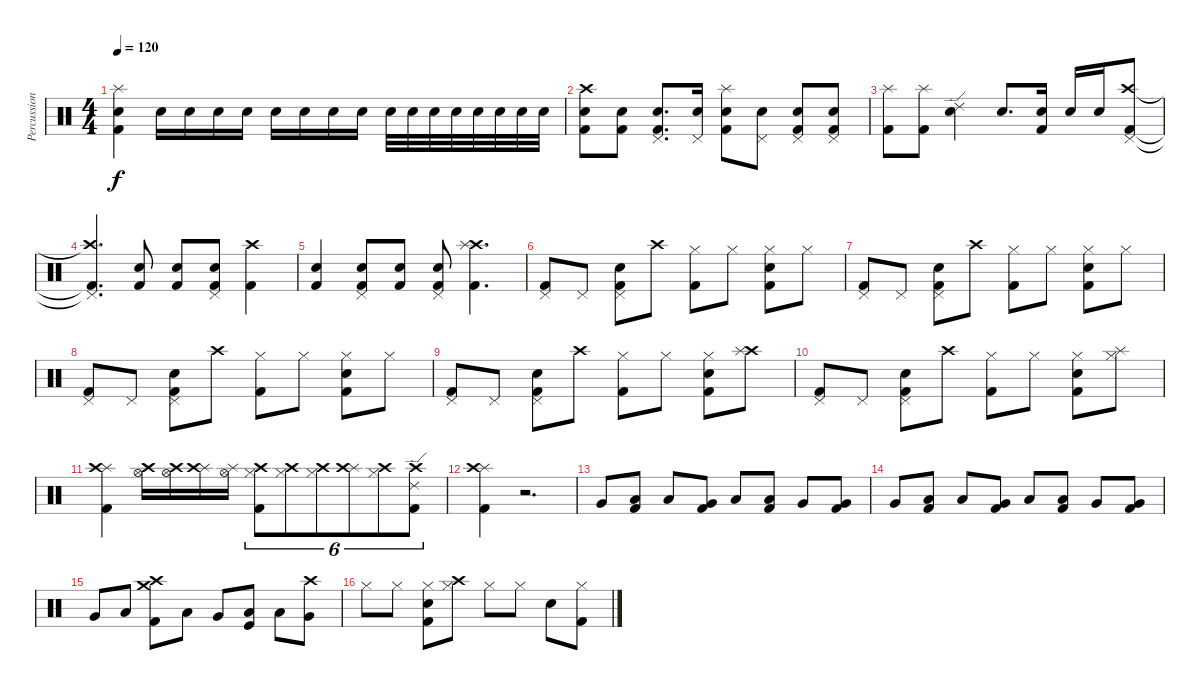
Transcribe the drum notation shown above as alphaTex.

\track ("Percussioni" "Percussion") {instrument percussion}
\staff {score}
\articulation defaults
\ts (4 4)
\tempo 120
\clef neutral
\ks c
("Splash (hit)" "Kick (hit) 2" "Snare (hit) 2").4{dy f} "Snare (hit) 2".16 "Snare (hit) 2".16 "Snare (hit) 2".16 "Snare (hit) 2".16 "Snare (hit) 2".16 "Snare (hit) 2".16 "Snare (hit) 2".16 "Snare (hit) 2".16 "Snare (hit) 2".32 "Snare (hit) 2".32 "Snare (hit) 2".32 "Snare (hit) 2".32 "Snare (hit) 2".32 "Snare (hit) 2".32 "Snare (hit) 2".32 "Snare (hit) 2".32 |
("Crash high (hit)" "Kick (hit) 2" "Snare (hit) 2").8 ("Kick (hit) 2" "Electric Snare (hit)").8 ("Pedal Hi-Hat (hit)" "Electric Snare (hit)" "Kick (hit) 2").8{d} ("Pedal Hi-Hat (hit)" "Electric Snare (hit)").16 ("Splash (hit)" "Electric Snare (hit)" "Kick (hit) 2").8 ("Pedal Hi-Hat (hit)" "Electric Snare (hit)").8 ("Pedal Hi-Hat (hit)" "Electric Snare (hit)" "Kick (hit) 2").8 ("Pedal Hi-Hat (hit)" "Electric Snare (hit)" "Kick (hit) 2").8 |
("Splash (hit)" "Kick (hit) 2").8 ("Splash (hit)" "Kick (hit) 2").8 ("Electric Snare (hit)" "Ride (edge) 2").4 "Snare (hit) 2".8{d} ("Electric Snare (hit)" "Kick (hit) 2").16 "Electric Snare (hit)".16 "Electric Snare (hit)".16 ("Crash high (hit)" "Pedal Hi-Hat (hit)" "Kick (hit) 2").8 |
("Crash high (hit)"{t} "Pedal Hi-Hat (hit)"{t} "Kick (hit) 2"{t}).4{d} ("Electric Snare (hit)" "Kick (hit) 2").8 ("Electric Snare (hit)" "Kick (hit) 2").8 ("Pedal Hi-Hat (hit)" "Electric Snare (hit)" "Kick (hit) 2").8 ("Crash high (hit)" "Kick (hit) 2").4 |
("Electric Snare (hit)" "Kick (hit) 2").4 ("Pedal Hi-Hat (hit)" "Electric Snare (hit)" "Kick (hit) 2").8 ("Electric Snare (hit)" "Kick (hit) 2").8 ("Pedal Hi-Hat (hit)" "Electric Snare (hit)" "Kick (hit) 2").8 ("Crash high (hit)" "Splash (hit)" "Kick (hit) 2").4{d} |
("Pedal Hi-Hat (hit)" "Kick (hit) 2").8 "Pedal Hi-Hat (hit)".8 ("Pedal Hi-Hat (hit)" "Electric Snare (hit)" "Kick (hit) 2").8 "Crash high (hit)".8 ("Hi-Hat (closed)" "Kick (hit) 2").8 "Hi-Hat (closed)".8 ("Hi-Hat (closed)" "Electric Snare (hit)" "Kick (hit) 2").8 "Hi-Hat (closed)".8 |
("Pedal Hi-Hat (hit)" "Kick (hit) 2").8 "Pedal Hi-Hat (hit)".8 ("Pedal Hi-Hat (hit)" "Electric Snare (hit)" "Kick (hit) 2").8 "Crash high (hit)".8 ("Hi-Hat (closed)" "Kick (hit) 2").8 "Hi-Hat (closed)".8 ("Hi-Hat (closed)" "Electric Snare (hit)" "Kick (hit) 2").8 "Hi-Hat (closed)".8 |
("Pedal Hi-Hat (hit)" "Kick (hit) 2").8 "Pedal Hi-Hat (hit)".8 ("Pedal Hi-Hat (hit)" "Electric Snare (hit)" "Kick (hit) 2").8 "Crash high (hit)".8 ("Hi-Hat (closed)" "Kick (hit) 2").8 "Hi-Hat (closed)".8 ("Hi-Hat (closed)" "Electric Snare (hit)" "Kick (hit) 2").8 "Hi-Hat (closed)".8 |
("Pedal Hi-Hat (hit)" "Kick (hit) 2").8 "Pedal Hi-Hat (hit)".8 ("Pedal Hi-Hat (hit)" "Electric Snare (hit)" "Kick (hit) 2").8 "Crash high (hit)".8 ("Hi-Hat (closed)" "Kick (hit) 2").8 "Hi-Hat (closed)".8 ("Hi-Hat (closed)" "Electric Snare (hit)" "Kick (hit) 2").8 ("Crash high (hit)" "Splash (hit)").8 |
("Pedal Hi-Hat (hit)" "Kick (hit) 2").8 "Pedal Hi-Hat (hit)".8 ("Pedal Hi-Hat (hit)" "Electric Snare (hit)" "Kick (hit) 2").8 "Crash high (hit)".8 ("Hi-Hat (closed)" "Kick (hit) 2").8 "Hi-Hat (closed)".8 ("Hi-Hat (closed)" "Electric Snare (hit)" "Kick (hit) 2").8 ("Splash (hit)" "Hi-Hat (closed)").8 |
("Splash (hit)" "Crash high (hit)" "Kick (hit) 2").4 ("Crash high (hit)" "Hi-Hat (open)").16 ("Crash high (hit)" "Hi-Hat (open)").16 ("Splash (hit)" "Crash high (hit)").16 ("Splash (hit)" "Hi-Hat (open)").16 ("Crash high (hit)" "Hi-Hat (closed)" "Kick (hit) 2").8{tu (6 4)} ("Crash high (hit)" "Hi-Hat (closed)").8{tu (6 4)} ("Crash high (hit)" "Hi-Hat (closed)").8{tu (6 4)} ("Splash (hit)" "Crash high (hit)").8{tu (6 4)} ("Hi-Hat (closed)" "Crash high (hit)").8{tu (6 4)} ("Crash high (hit)" "Ride (edge) 2" "Kick (hit) 2").8{tu (6 4)} |
("Splash (hit)" "Crash high (hit)" "Kick (hit) 2").4 r.2{d} |
"Very Low Tom (hit)".8 ("Low Floor Tom (hit)" "Kick (hit) 2").8 "Low Tom (hit)".8 ("Very Low Tom (hit)" "Kick (hit) 2").8 "Low Floor Tom (hit)".8 ("Low Tom (hit)" "Kick (hit) 2").8 "Very Low Tom (hit)".8 ("Very Low Tom (hit)" "Kick (hit) 2").8 |
"Very Low Tom (hit)".8 ("Low Floor Tom (hit)" "Kick (hit) 2").8 "Low Tom (hit)".8 ("Very Low Tom (hit)" "Kick (hit) 2").8 "Low Floor Tom (hit)".8 ("Low Tom (hit)" "Kick (hit) 2").8 "Very Low Tom (hit)".8 ("Very Low Tom (hit)" "Kick (hit) 2").8 |
"Very Low Tom (hit)".8 "Low Floor Tom (hit)".8 ("Crash medium (hit)" "Crash high (hit)" "Kick (hit) 2").8 "Low Tom (hit)".8 "Very Low Tom (hit)".8 ("Low Floor Tom (hit)" "Kick (hit)").8 "Low Tom (hit)".8 ("Crash high (hit)" "Very Low Tom (hit)").8 |
"Hi-Hat (closed)".8 "Hi-Hat (closed)".8 ("Hi-Hat (closed)" "Electric Snare (hit)" "Kick (hit) 2").8 ("Crash high (hit)" "Hi-Hat (closed)").8 "Hi-Hat (closed)".8 "Hi-Hat (closed)".8 "Electric Snare (hit)".8 ("Hi-Hat (closed)" "Kick (hit) 2").8
